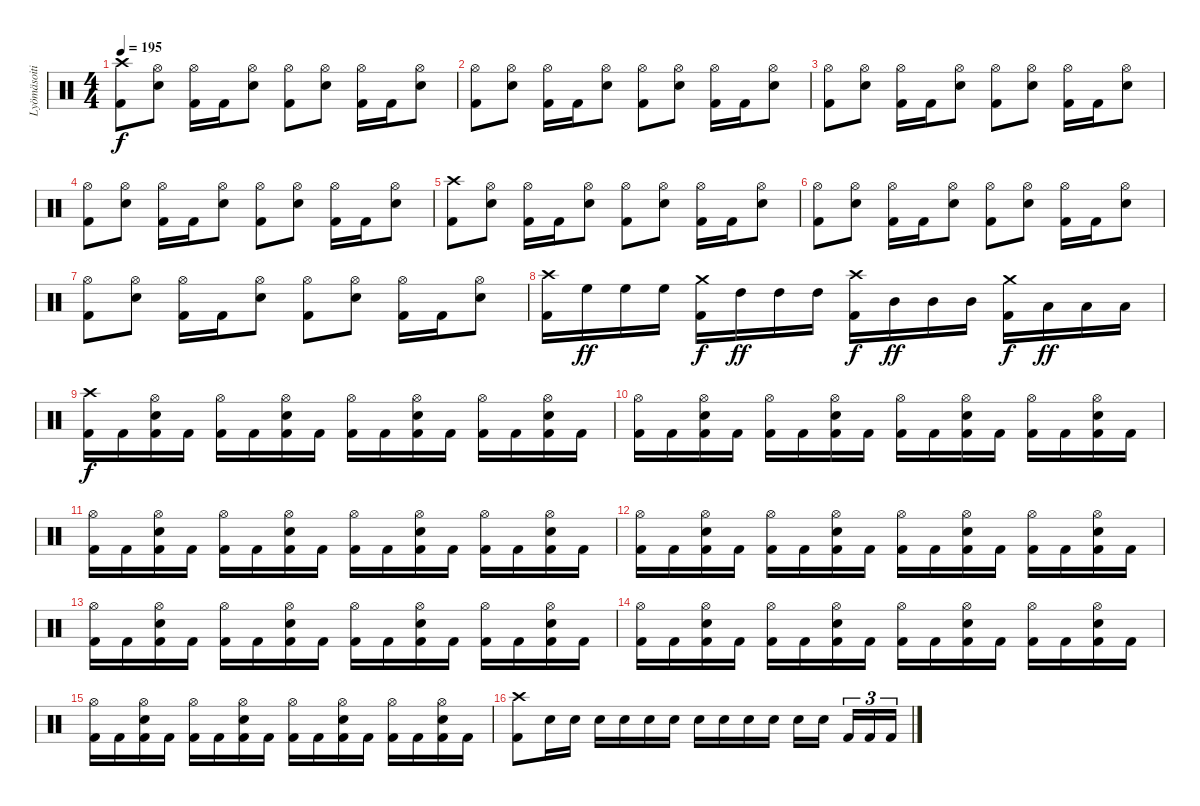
\track ("Lyömäsoitin" "Lyömäsoiti") {instrument percussion}
\staff {score}
\articulation defaults
\ts (4 4)
\tempo 195
\clef neutral
\ks c
("Crash high (hit)" "Kick (hit) 2").8{dy f} ("Hi-Hat (open)" "Snare (hit) 2").8 ("Hi-Hat (open)" "Kick (hit) 2").16 "Kick (hit) 2".16 ("Hi-Hat (open)" "Snare (hit) 2").8 ("Hi-Hat (open)" "Kick (hit) 2").8 ("Hi-Hat (open)" "Snare (hit) 2").8 ("Hi-Hat (open)" "Kick (hit) 2").16 "Kick (hit) 2".16 ("Hi-Hat (open)" "Snare (hit) 2").8 |
("Hi-Hat (open)" "Kick (hit) 2").8 ("Hi-Hat (open)" "Snare (hit) 2").8 ("Hi-Hat (open)" "Kick (hit) 2").16 "Kick (hit) 2".16 ("Hi-Hat (open)" "Snare (hit) 2").8 ("Hi-Hat (open)" "Kick (hit) 2").8 ("Hi-Hat (open)" "Snare (hit) 2").8 ("Hi-Hat (open)" "Kick (hit) 2").16 "Kick (hit) 2".16 ("Hi-Hat (open)" "Snare (hit) 2").8 |
("Hi-Hat (open)" "Kick (hit) 2").8 ("Hi-Hat (open)" "Snare (hit) 2").8 ("Hi-Hat (open)" "Kick (hit) 2").16 "Kick (hit) 2".16 ("Hi-Hat (open)" "Snare (hit) 2").8 ("Hi-Hat (open)" "Kick (hit) 2").8 ("Hi-Hat (open)" "Snare (hit) 2").8 ("Hi-Hat (open)" "Kick (hit) 2").16 "Kick (hit) 2".16 ("Hi-Hat (open)" "Snare (hit) 2").8 |
("Hi-Hat (open)" "Kick (hit) 2").8 ("Hi-Hat (open)" "Snare (hit) 2").8 ("Hi-Hat (open)" "Kick (hit) 2").16 "Kick (hit) 2".16 ("Hi-Hat (open)" "Snare (hit) 2").8 ("Hi-Hat (open)" "Kick (hit) 2").8 ("Hi-Hat (open)" "Snare (hit) 2").8 ("Hi-Hat (open)" "Kick (hit) 2").16 "Kick (hit) 2".16 ("Hi-Hat (open)" "Snare (hit) 2").8 |
("Crash high (hit)" "Kick (hit) 2").8 ("Hi-Hat (open)" "Snare (hit) 2").8 ("Hi-Hat (open)" "Kick (hit) 2").16 "Kick (hit) 2".16 ("Hi-Hat (open)" "Snare (hit) 2").8 ("Hi-Hat (open)" "Kick (hit) 2").8 ("Hi-Hat (open)" "Snare (hit) 2").8 ("Hi-Hat (open)" "Kick (hit) 2").16 "Kick (hit) 2".16 ("Hi-Hat (open)" "Snare (hit) 2").8 |
("Hi-Hat (open)" "Kick (hit) 2").8 ("Hi-Hat (open)" "Snare (hit) 2").8 ("Hi-Hat (open)" "Kick (hit) 2").16 "Kick (hit) 2".16 ("Hi-Hat (open)" "Snare (hit) 2").8 ("Hi-Hat (open)" "Kick (hit) 2").8 ("Hi-Hat (open)" "Snare (hit) 2").8 ("Hi-Hat (open)" "Kick (hit) 2").16 "Kick (hit) 2".16 ("Hi-Hat (open)" "Snare (hit) 2").8 |
("Hi-Hat (open)" "Kick (hit) 2").8 ("Hi-Hat (open)" "Snare (hit) 2").8 ("Hi-Hat (open)" "Kick (hit) 2").16 "Kick (hit) 2".16 ("Hi-Hat (open)" "Snare (hit) 2").8 ("Hi-Hat (open)" "Kick (hit) 2").8 ("Hi-Hat (open)" "Snare (hit) 2").8 ("Hi-Hat (open)" "Kick (hit) 2").16 "Kick (hit) 2".16 ("Hi-Hat (open)" "Snare (hit) 2").8 |
("Crash high (hit)" "Kick (hit) 2").16 "High Floor Tom (hit)".16{dy ff} "High Floor Tom (hit)".16 "High Floor Tom (hit)".16 ("Crash medium (hit)" "Kick (hit) 2").16{dy f} "High Tom (hit)".16{dy ff} "High Tom (hit)".16 "High Tom (hit)".16 ("Crash high (hit)" "Kick (hit) 2").16{dy f} "Mid Tom (hit)".16{dy ff} "Mid Tom (hit)".16 "Mid Tom (hit)".16 ("Crash medium (hit)" "Kick (hit) 2").16{dy f} "Low Tom (hit)".16{dy ff} "Low Tom (hit)".16 "Low Tom (hit)".16 |
("Crash high (hit)" "Kick (hit) 2").16{dy f} "Kick (hit) 2".16 ("Hi-Hat (open)" "Snare (hit) 2" "Kick (hit) 2").16 "Kick (hit) 2".16 ("Hi-Hat (open)" "Kick (hit) 2").16 "Kick (hit) 2".16 ("Hi-Hat (open)" "Snare (hit) 2" "Kick (hit) 2").16 "Kick (hit) 2".16 ("Hi-Hat (open)" "Kick (hit) 2").16 "Kick (hit) 2".16 ("Hi-Hat (open)" "Snare (hit) 2" "Kick (hit) 2").16 "Kick (hit) 2".16 ("Hi-Hat (open)" "Kick (hit) 2").16 "Kick (hit) 2".16 ("Hi-Hat (open)" "Snare (hit) 2" "Kick (hit) 2").16 "Kick (hit) 2".16 |
("Hi-Hat (open)" "Kick (hit) 2").16 "Kick (hit) 2".16 ("Hi-Hat (open)" "Snare (hit) 2" "Kick (hit) 2").16 "Kick (hit) 2".16 ("Hi-Hat (open)" "Kick (hit) 2").16 "Kick (hit) 2".16 ("Hi-Hat (open)" "Snare (hit) 2" "Kick (hit) 2").16 "Kick (hit) 2".16 ("Hi-Hat (open)" "Kick (hit) 2").16 "Kick (hit) 2".16 ("Hi-Hat (open)" "Snare (hit) 2" "Kick (hit) 2").16 "Kick (hit) 2".16 ("Hi-Hat (open)" "Kick (hit) 2").16 "Kick (hit) 2".16 ("Hi-Hat (open)" "Snare (hit) 2" "Kick (hit) 2").16 "Kick (hit) 2".16 |
("Hi-Hat (open)" "Kick (hit) 2").16 "Kick (hit) 2".16 ("Hi-Hat (open)" "Snare (hit) 2" "Kick (hit) 2").16 "Kick (hit) 2".16 ("Hi-Hat (open)" "Kick (hit) 2").16 "Kick (hit) 2".16 ("Hi-Hat (open)" "Snare (hit) 2" "Kick (hit) 2").16 "Kick (hit) 2".16 ("Hi-Hat (open)" "Kick (hit) 2").16 "Kick (hit) 2".16 ("Hi-Hat (open)" "Snare (hit) 2" "Kick (hit) 2").16 "Kick (hit) 2".16 ("Hi-Hat (open)" "Kick (hit) 2").16 "Kick (hit) 2".16 ("Hi-Hat (open)" "Snare (hit) 2" "Kick (hit) 2").16 "Kick (hit) 2".16 |
("Hi-Hat (open)" "Kick (hit) 2").16 "Kick (hit) 2".16 ("Hi-Hat (open)" "Snare (hit) 2" "Kick (hit) 2").16 "Kick (hit) 2".16 ("Hi-Hat (open)" "Kick (hit) 2").16 "Kick (hit) 2".16 ("Hi-Hat (open)" "Snare (hit) 2" "Kick (hit) 2").16 "Kick (hit) 2".16 ("Hi-Hat (open)" "Kick (hit) 2").16 "Kick (hit) 2".16 ("Hi-Hat (open)" "Snare (hit) 2" "Kick (hit) 2").16 "Kick (hit) 2".16 ("Hi-Hat (open)" "Kick (hit) 2").16 "Kick (hit) 2".16 ("Hi-Hat (open)" "Snare (hit) 2" "Kick (hit) 2").16 "Kick (hit) 2".16 |
("Hi-Hat (open)" "Kick (hit) 2").16 "Kick (hit) 2".16 ("Hi-Hat (open)" "Snare (hit) 2" "Kick (hit) 2").16 "Kick (hit) 2".16 ("Hi-Hat (open)" "Kick (hit) 2").16 "Kick (hit) 2".16 ("Hi-Hat (open)" "Snare (hit) 2" "Kick (hit) 2").16 "Kick (hit) 2".16 ("Hi-Hat (open)" "Kick (hit) 2").16 "Kick (hit) 2".16 ("Hi-Hat (open)" "Snare (hit) 2" "Kick (hit) 2").16 "Kick (hit) 2".16 ("Hi-Hat (open)" "Kick (hit) 2").16 "Kick (hit) 2".16 ("Hi-Hat (open)" "Snare (hit) 2" "Kick (hit) 2").16 "Kick (hit) 2".16 |
("Hi-Hat (open)" "Kick (hit) 2").16 "Kick (hit) 2".16 ("Hi-Hat (open)" "Snare (hit) 2" "Kick (hit) 2").16 "Kick (hit) 2".16 ("Hi-Hat (open)" "Kick (hit) 2").16 "Kick (hit) 2".16 ("Hi-Hat (open)" "Snare (hit) 2" "Kick (hit) 2").16 "Kick (hit) 2".16 ("Hi-Hat (open)" "Kick (hit) 2").16 "Kick (hit) 2".16 ("Hi-Hat (open)" "Snare (hit) 2" "Kick (hit) 2").16 "Kick (hit) 2".16 ("Hi-Hat (open)" "Kick (hit) 2").16 "Kick (hit) 2".16 ("Hi-Hat (open)" "Snare (hit) 2" "Kick (hit) 2").16 "Kick (hit) 2".16 |
("Hi-Hat (open)" "Kick (hit) 2").16 "Kick (hit) 2".16 ("Hi-Hat (open)" "Snare (hit) 2" "Kick (hit) 2").16 "Kick (hit) 2".16 ("Hi-Hat (open)" "Kick (hit) 2").16 "Kick (hit) 2".16 ("Hi-Hat (open)" "Snare (hit) 2" "Kick (hit) 2").16 "Kick (hit) 2".16 ("Hi-Hat (open)" "Kick (hit) 2").16 "Kick (hit) 2".16 ("Hi-Hat (open)" "Snare (hit) 2" "Kick (hit) 2").16 "Kick (hit) 2".16 ("Hi-Hat (open)" "Kick (hit) 2").16 "Kick (hit) 2".16 ("Hi-Hat (open)" "Snare (hit) 2" "Kick (hit) 2").16 "Kick (hit) 2".16 |
("Crash high (hit)" "Kick (hit) 2").8 "Snare (hit) 2".16 "Snare (hit) 2".16 "Snare (hit) 2".16 "Snare (hit) 2".16 "Snare (hit) 2".16 "Snare (hit) 2".16 "Snare (hit) 2".16 "Snare (hit) 2".16 "Snare (hit) 2".16 "Snare (hit) 2".16 "Snare (hit) 2".16 "Snare (hit) 2".16{beam splitsecondary} "Kick (hit) 2".16{tu (3 2)} "Kick (hit) 2".16{tu (3 2)} "Kick (hit) 2".16{tu (3 2)}
